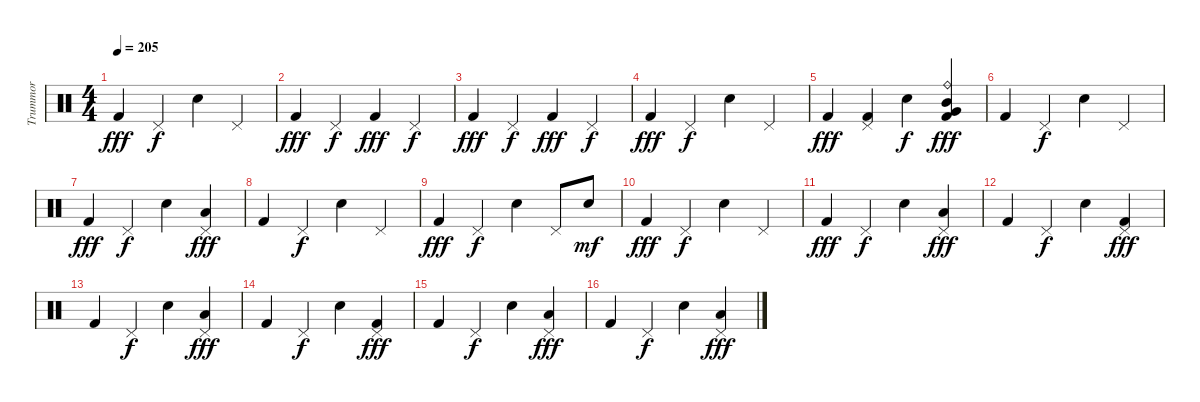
\track ("Trummor" "Trummor") {instrument percussion}
\staff {score}
\articulation defaults
\ts (4 4)
\tempo 205
\clef neutral
\ks c "Kick (hit) 2".4{dy fff} "Pedal Hi-Hat (hit)".4{dy f} "Electric Snare (hit)".4 "Pedal Hi-Hat (hit)".4
|
"Kick (hit) 2".4{dy fff} "Pedal Hi-Hat (hit)".4{dy f} "Kick (hit) 2".4{dy fff} "Pedal Hi-Hat (hit)".4{dy f} |
"Kick (hit) 2".4{dy fff} "Pedal Hi-Hat (hit)".4{dy f} "Kick (hit) 2".4{dy fff} "Pedal Hi-Hat (hit)".4{dy f} |
"Kick (hit) 2".4{dy fff} "Pedal Hi-Hat (hit)".4{dy f} "Electric Snare (hit)".4 "Pedal Hi-Hat (hit)".4 |
"Kick (hit) 2".4{dy fff} ("Pedal Hi-Hat (hit)" "Kick (hit) 2").4 "Electric Snare (hit)".4{dy f} ("Ride (bell)" "Mid Tom (hit)" "Very Low Tom (hit)" "Kick (hit) 2").4{dy fff} |
"Kick (hit) 2".4 "Pedal Hi-Hat (hit)".4{dy f} "Electric Snare (hit)".4 "Pedal Hi-Hat (hit)".4 |
"Kick (hit) 2".4{dy fff} "Pedal Hi-Hat (hit)".4{dy f} "Electric Snare (hit)".4 ("Pedal Hi-Hat (hit)" "Low Floor Tom (hit)").4{dy fff} |
"Kick (hit) 2".4 "Pedal Hi-Hat (hit)".4{dy f} "Electric Snare (hit)".4 "Pedal Hi-Hat (hit)".4 |
"Kick (hit) 2".4{dy fff} "Pedal Hi-Hat (hit)".4{dy f} "Electric Snare (hit)".4 "Pedal Hi-Hat (hit)".8 "Electric Snare (hit)".8{dy mf} |
"Kick (hit) 2".4{dy fff} "Pedal Hi-Hat (hit)".4{dy f} "Electric Snare (hit)".4 "Pedal Hi-Hat (hit)".4 |
"Kick (hit) 2".4{dy fff} "Pedal Hi-Hat (hit)".4{dy f} "Electric Snare (hit)".4 ("Pedal Hi-Hat (hit)" "Low Tom (hit)").4{dy fff} |
"Kick (hit) 2".4 "Pedal Hi-Hat (hit)".4{dy f} "Electric Snare (hit)".4 ("Pedal Hi-Hat (hit)" "Kick (hit) 2").4{dy fff} |
"Kick (hit) 2".4 "Pedal Hi-Hat (hit)".4{dy f} "Electric Snare (hit)".4 ("Pedal Hi-Hat (hit)" "Low Tom (hit)").4{dy fff} |
"Kick (hit) 2".4 "Pedal Hi-Hat (hit)".4{dy f} "Electric Snare (hit)".4 ("Pedal Hi-Hat (hit)" "Kick (hit) 2").4{dy fff} |
"Kick (hit) 2".4 "Pedal Hi-Hat (hit)".4{dy f} "Electric Snare (hit)".4 ("Pedal Hi-Hat (hit)" "Low Tom (hit)").4{dy fff} |
"Kick (hit) 2".4 "Pedal Hi-Hat (hit)".4{dy f} "Electric Snare (hit)".4 ("Pedal Hi-Hat (hit)" "Low Tom (hit)").4{dy fff}
